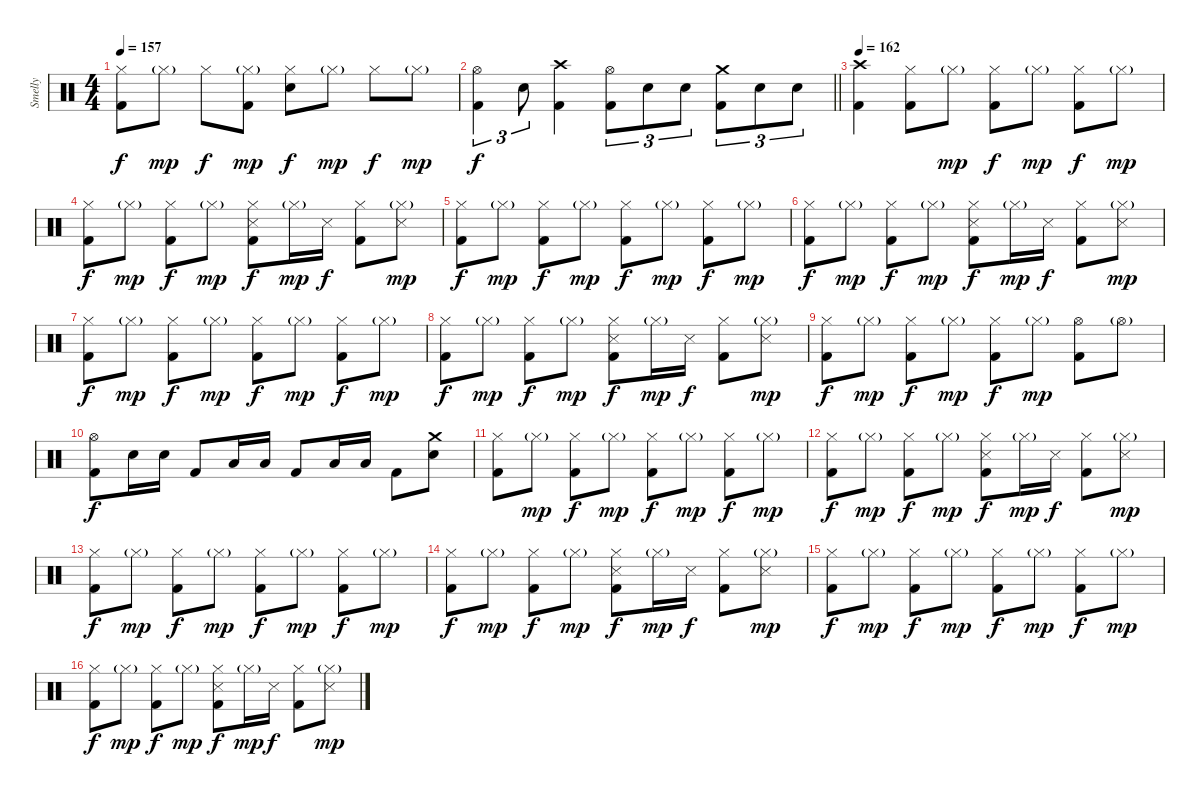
\track ("Smelly" "Smelly") {instrument percussion}
\staff {score}
\articulation defaults
\ts (4 4)
\tempo 157
\clef neutral
\ks c
("Hi-Hat (closed)" "Kick (hit) 2").8{dy f} "Hi-Hat (closed)"{g}.8{dy mp} "Hi-Hat (closed)".8{dy f} ("Hi-Hat (closed)"{g} "Kick (hit) 2").8{dy mp} ("Hi-Hat (closed)" "Electric Snare (hit)").8{dy f} "Hi-Hat (closed)"{g}.8{dy mp} "Hi-Hat (closed)".8{dy f} "Hi-Hat (closed)"{g}.8{dy mp} |
\barLineRight lightlight
("Hi-Hat (open)" "Kick (hit) 2").4{tu (3 2) dy f} "Electric Snare (hit)".8{tu (3 2)} ("Crash high (hit)" "Kick (hit) 2").4 ("Hi-Hat (open)" "Kick (hit) 2").8{tu (3 2)} "Electric Snare (hit)".8{tu (3 2)} "Electric Snare (hit)".8{tu (3 2)} ("Crash medium (hit)" "Kick (hit) 2").8{tu (3 2)} "Electric Snare (hit)".8{tu (3 2)} "Electric Snare (hit)".8{tu (3 2)} |
\section ("" "")
\tempo 162
("Crash high (hit)" "Kick (hit) 2").4 ("Hi-Hat (closed)" "Kick (hit) 2").8 "Hi-Hat (closed)"{g}.8{dy mp} ("Hi-Hat (closed)" "Kick (hit) 2").8{dy f} "Hi-Hat (closed)"{g}.8{dy mp} ("Hi-Hat (closed)" "Kick (hit) 2").8{dy f} "Hi-Hat (closed)"{g}.8{dy mp} |
("Hi-Hat (closed)" "Kick (hit) 2").8{dy f} "Hi-Hat (closed)"{g}.8{dy mp} ("Hi-Hat (closed)" "Kick (hit) 2").8{dy f} "Hi-Hat (closed)"{g}.8{dy mp} ("Hi-Hat (closed)" "Snare (side stick) 3" "Kick (hit) 2").8{dy f} "Hi-Hat (closed)"{g}.16{dy mp} "Snare (side stick) 3".16{dy f} ("Hi-Hat (closed)" "Kick (hit) 2").8 ("Hi-Hat (closed)"{g} "Snare (side stick) 3").8{dy mp} |
("Hi-Hat (closed)" "Kick (hit) 2").8{dy f} "Hi-Hat (closed)"{g}.8{dy mp} ("Hi-Hat (closed)" "Kick (hit) 2").8{dy f} "Hi-Hat (closed)"{g}.8{dy mp} ("Hi-Hat (closed)" "Kick (hit) 2").8{dy f} "Hi-Hat (closed)"{g}.8{dy mp} ("Hi-Hat (closed)" "Kick (hit) 2").8{dy f} "Hi-Hat (closed)"{g}.8{dy mp} |
("Hi-Hat (closed)" "Kick (hit) 2").8{dy f} "Hi-Hat (closed)"{g}.8{dy mp} ("Hi-Hat (closed)" "Kick (hit) 2").8{dy f} "Hi-Hat (closed)"{g}.8{dy mp} ("Hi-Hat (closed)" "Snare (side stick) 3" "Kick (hit) 2").8{dy f} "Hi-Hat (closed)"{g}.16{dy mp} "Snare (side stick) 3".16{dy f} ("Hi-Hat (closed)" "Kick (hit) 2").8 ("Hi-Hat (closed)"{g} "Snare (side stick) 3").8{dy mp} |
("Hi-Hat (closed)" "Kick (hit) 2").8{dy f} "Hi-Hat (closed)"{g}.8{dy mp} ("Hi-Hat (closed)" "Kick (hit) 2").8{dy f} "Hi-Hat (closed)"{g}.8{dy mp} ("Hi-Hat (closed)" "Kick (hit) 2").8{dy f} "Hi-Hat (closed)"{g}.8{dy mp} ("Hi-Hat (closed)" "Kick (hit) 2").8{dy f} "Hi-Hat (closed)"{g}.8{dy mp} |
("Hi-Hat (closed)" "Kick (hit) 2").8{dy f} "Hi-Hat (closed)"{g}.8{dy mp} ("Hi-Hat (closed)" "Kick (hit) 2").8{dy f} "Hi-Hat (closed)"{g}.8{dy mp} ("Hi-Hat (closed)" "Snare (side stick) 3" "Kick (hit) 2").8{dy f} "Hi-Hat (closed)"{g}.16{dy mp} "Snare (side stick) 3".16{dy f} ("Hi-Hat (closed)" "Kick (hit) 2").8 ("Hi-Hat (closed)"{g} "Snare (side stick) 3").8{dy mp} |
("Hi-Hat (closed)" "Kick (hit) 2").8{dy f} "Hi-Hat (closed)"{g}.8{dy mp} ("Hi-Hat (closed)" "Kick (hit) 2").8{dy f} "Hi-Hat (closed)"{g}.8{dy mp} ("Hi-Hat (closed)" "Kick (hit) 2").8{dy f} "Hi-Hat (closed)"{g}.8{dy mp} ("Hi-Hat (open)" "Kick (hit) 2").8 "Hi-Hat (open)"{g}.8 |
("Hi-Hat (open)" "Kick (hit) 2").8{dy f} "Electric Snare (hit)".16 "Electric Snare (hit)".16 "Kick (hit) 2".8 "Low Tom (hit)".16 "Low Tom (hit)".16 "Kick (hit) 2".8 "Low Floor Tom (hit)".16 "Low Floor Tom (hit)".16 "Kick (hit) 2".8 ("Crash medium (hit)" "Electric Snare (hit)").8 |
("Hi-Hat (closed)" "Kick (hit) 2").8 "Hi-Hat (closed)"{g}.8{dy mp} ("Hi-Hat (closed)" "Kick (hit) 2").8{dy f} "Hi-Hat (closed)"{g}.8{dy mp} ("Hi-Hat (closed)" "Kick (hit) 2").8{dy f} "Hi-Hat (closed)"{g}.8{dy mp} ("Hi-Hat (closed)" "Kick (hit) 2").8{dy f} "Hi-Hat (closed)"{g}.8{dy mp} |
("Hi-Hat (closed)" "Kick (hit) 2").8{dy f} "Hi-Hat (closed)"{g}.8{dy mp} ("Hi-Hat (closed)" "Kick (hit) 2").8{dy f} "Hi-Hat (closed)"{g}.8{dy mp} ("Hi-Hat (closed)" "Snare (side stick) 3" "Kick (hit) 2").8{dy f} "Hi-Hat (closed)"{g}.16{dy mp} "Snare (side stick) 3".16{dy f} ("Hi-Hat (closed)" "Kick (hit) 2").8 ("Hi-Hat (closed)"{g} "Snare (side stick) 3").8{dy mp} |
("Hi-Hat (closed)" "Kick (hit) 2").8{dy f} "Hi-Hat (closed)"{g}.8{dy mp} ("Hi-Hat (closed)" "Kick (hit) 2").8{dy f} "Hi-Hat (closed)"{g}.8{dy mp} ("Hi-Hat (closed)" "Kick (hit) 2").8{dy f} "Hi-Hat (closed)"{g}.8{dy mp} ("Hi-Hat (closed)" "Kick (hit) 2").8{dy f} "Hi-Hat (closed)"{g}.8{dy mp} |
("Hi-Hat (closed)" "Kick (hit) 2").8{dy f} "Hi-Hat (closed)"{g}.8{dy mp} ("Hi-Hat (closed)" "Kick (hit) 2").8{dy f} "Hi-Hat (closed)"{g}.8{dy mp} ("Hi-Hat (closed)" "Snare (side stick) 3" "Kick (hit) 2").8{dy f} "Hi-Hat (closed)"{g}.16{dy mp} "Snare (side stick) 3".16{dy f} ("Hi-Hat (closed)" "Kick (hit) 2").8 ("Hi-Hat (closed)"{g} "Snare (side stick) 3").8{dy mp} |
("Hi-Hat (closed)" "Kick (hit) 2").8{dy f} "Hi-Hat (closed)"{g}.8{dy mp} ("Hi-Hat (closed)" "Kick (hit) 2").8{dy f} "Hi-Hat (closed)"{g}.8{dy mp} ("Hi-Hat (closed)" "Kick (hit) 2").8{dy f} "Hi-Hat (closed)"{g}.8{dy mp} ("Hi-Hat (closed)" "Kick (hit) 2").8{dy f} "Hi-Hat (closed)"{g}.8{dy mp} |
("Hi-Hat (closed)" "Kick (hit) 2").8{dy f} "Hi-Hat (closed)"{g}.8{dy mp} ("Hi-Hat (closed)" "Kick (hit) 2").8{dy f} "Hi-Hat (closed)"{g}.8{dy mp} ("Hi-Hat (closed)" "Snare (side stick) 3" "Kick (hit) 2").8{dy f} "Hi-Hat (closed)"{g}.16{dy mp} "Snare (side stick) 3".16{dy f} ("Hi-Hat (closed)" "Kick (hit) 2").8 ("Hi-Hat (closed)"{g} "Snare (side stick) 3").8{dy mp}
